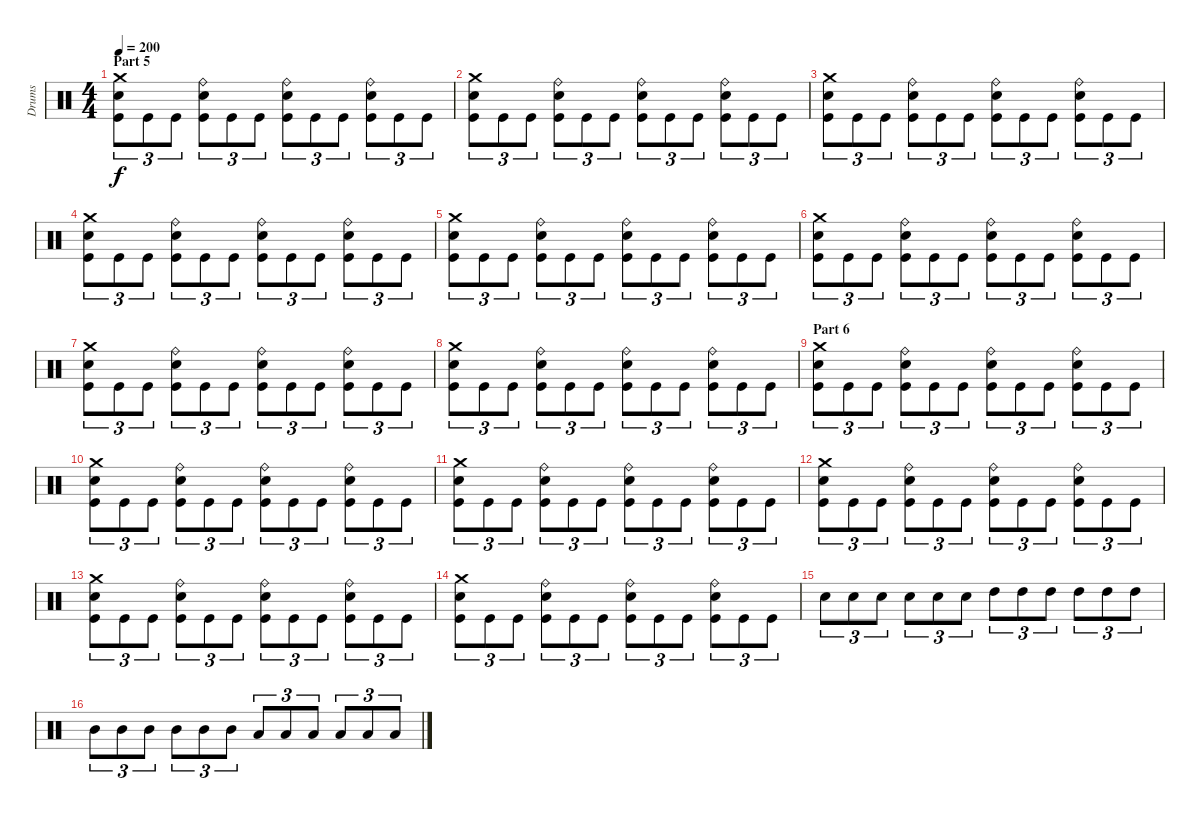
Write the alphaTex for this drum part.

\track ("Drums" "Drums") {instrument percussion}
\staff {score}
\articulation defaults
\ts (4 4)
\section ("" "Part 5")
\tempo 200
\clef neutral
\ks c
("Crash medium (hit)" "Electric Snare (hit)" "Kick (hit)").8{tu (3 2) dy f} "Kick (hit)".8{tu (3 2)} "Kick (hit)".8{tu (3 2)} ("Ride (bell)" "Electric Snare (hit)" "Kick (hit)").8{tu (3 2)} "Kick (hit)".8{tu (3 2)} "Kick (hit)".8{tu (3 2)} ("Ride (bell)" "Electric Snare (hit)" "Kick (hit)").8{tu (3 2)} "Kick (hit)".8{tu (3 2)} "Kick (hit)".8{tu (3 2)} ("Ride (bell)" "Electric Snare (hit)" "Kick (hit)").8{tu (3 2)} "Kick (hit)".8{tu (3 2)} "Kick (hit)".8{tu (3 2)} |
("Crash medium (hit)" "Electric Snare (hit)" "Kick (hit)").8{tu (3 2)} "Kick (hit)".8{tu (3 2)} "Kick (hit)".8{tu (3 2)} ("Ride (bell)" "Electric Snare (hit)" "Kick (hit)").8{tu (3 2)} "Kick (hit)".8{tu (3 2)} "Kick (hit)".8{tu (3 2)} ("Ride (bell)" "Electric Snare (hit)" "Kick (hit)").8{tu (3 2)} "Kick (hit)".8{tu (3 2)} "Kick (hit)".8{tu (3 2)} ("Ride (bell)" "Electric Snare (hit)" "Kick (hit)").8{tu (3 2)} "Kick (hit)".8{tu (3 2)} "Kick (hit)".8{tu (3 2)} |
("Crash medium (hit)" "Electric Snare (hit)" "Kick (hit)").8{tu (3 2)} "Kick (hit)".8{tu (3 2)} "Kick (hit)".8{tu (3 2)} ("Ride (bell)" "Electric Snare (hit)" "Kick (hit)").8{tu (3 2)} "Kick (hit)".8{tu (3 2)} "Kick (hit)".8{tu (3 2)} ("Ride (bell)" "Electric Snare (hit)" "Kick (hit)").8{tu (3 2)} "Kick (hit)".8{tu (3 2)} "Kick (hit)".8{tu (3 2)} ("Ride (bell)" "Electric Snare (hit)" "Kick (hit)").8{tu (3 2)} "Kick (hit)".8{tu (3 2)} "Kick (hit)".8{tu (3 2)} |
("Crash medium (hit)" "Electric Snare (hit)" "Kick (hit)").8{tu (3 2)} "Kick (hit)".8{tu (3 2)} "Kick (hit)".8{tu (3 2)} ("Ride (bell)" "Electric Snare (hit)" "Kick (hit)").8{tu (3 2)} "Kick (hit)".8{tu (3 2)} "Kick (hit)".8{tu (3 2)} ("Ride (bell)" "Electric Snare (hit)" "Kick (hit)").8{tu (3 2)} "Kick (hit)".8{tu (3 2)} "Kick (hit)".8{tu (3 2)} ("Ride (bell)" "Electric Snare (hit)" "Kick (hit)").8{tu (3 2)} "Kick (hit)".8{tu (3 2)} "Kick (hit)".8{tu (3 2)} |
("Crash medium (hit)" "Electric Snare (hit)" "Kick (hit)").8{tu (3 2)} "Kick (hit)".8{tu (3 2)} "Kick (hit)".8{tu (3 2)} ("Ride (bell)" "Electric Snare (hit)" "Kick (hit)").8{tu (3 2)} "Kick (hit)".8{tu (3 2)} "Kick (hit)".8{tu (3 2)} ("Ride (bell)" "Electric Snare (hit)" "Kick (hit)").8{tu (3 2)} "Kick (hit)".8{tu (3 2)} "Kick (hit)".8{tu (3 2)} ("Ride (bell)" "Electric Snare (hit)" "Kick (hit)").8{tu (3 2)} "Kick (hit)".8{tu (3 2)} "Kick (hit)".8{tu (3 2)} |
("Crash medium (hit)" "Electric Snare (hit)" "Kick (hit)").8{tu (3 2)} "Kick (hit)".8{tu (3 2)} "Kick (hit)".8{tu (3 2)} ("Ride (bell)" "Electric Snare (hit)" "Kick (hit)").8{tu (3 2)} "Kick (hit)".8{tu (3 2)} "Kick (hit)".8{tu (3 2)} ("Ride (bell)" "Electric Snare (hit)" "Kick (hit)").8{tu (3 2)} "Kick (hit)".8{tu (3 2)} "Kick (hit)".8{tu (3 2)} ("Ride (bell)" "Electric Snare (hit)" "Kick (hit)").8{tu (3 2)} "Kick (hit)".8{tu (3 2)} "Kick (hit)".8{tu (3 2)} |
("Crash medium (hit)" "Electric Snare (hit)" "Kick (hit)").8{tu (3 2)} "Kick (hit)".8{tu (3 2)} "Kick (hit)".8{tu (3 2)} ("Ride (bell)" "Electric Snare (hit)" "Kick (hit)").8{tu (3 2)} "Kick (hit)".8{tu (3 2)} "Kick (hit)".8{tu (3 2)} ("Ride (bell)" "Electric Snare (hit)" "Kick (hit)").8{tu (3 2)} "Kick (hit)".8{tu (3 2)} "Kick (hit)".8{tu (3 2)} ("Ride (bell)" "Electric Snare (hit)" "Kick (hit)").8{tu (3 2)} "Kick (hit)".8{tu (3 2)} "Kick (hit)".8{tu (3 2)} |
("Crash medium (hit)" "Electric Snare (hit)" "Kick (hit)").8{tu (3 2)} "Kick (hit)".8{tu (3 2)} "Kick (hit)".8{tu (3 2)} ("Ride (bell)" "Electric Snare (hit)" "Kick (hit)").8{tu (3 2)} "Kick (hit)".8{tu (3 2)} "Kick (hit)".8{tu (3 2)} ("Ride (bell)" "Electric Snare (hit)" "Kick (hit)").8{tu (3 2)} "Kick (hit)".8{tu (3 2)} "Kick (hit)".8{tu (3 2)} ("Ride (bell)" "Electric Snare (hit)" "Kick (hit)").8{tu (3 2)} "Kick (hit)".8{tu (3 2)} "Kick (hit)".8{tu (3 2)} |
\section ("" "Part 6")
("Crash medium (hit)" "Electric Snare (hit)" "Kick (hit)").8{tu (3 2)} "Kick (hit)".8{tu (3 2)} "Kick (hit)".8{tu (3 2)} ("Ride (bell)" "Electric Snare (hit)" "Kick (hit)").8{tu (3 2)} "Kick (hit)".8{tu (3 2)} "Kick (hit)".8{tu (3 2)} ("Ride (bell)" "Electric Snare (hit)" "Kick (hit)").8{tu (3 2)} "Kick (hit)".8{tu (3 2)} "Kick (hit)".8{tu (3 2)} ("Ride (bell)" "Electric Snare (hit)" "Kick (hit)").8{tu (3 2)} "Kick (hit)".8{tu (3 2)} "Kick (hit)".8{tu (3 2)} |
("Crash medium (hit)" "Electric Snare (hit)" "Kick (hit)").8{tu (3 2)} "Kick (hit)".8{tu (3 2)} "Kick (hit)".8{tu (3 2)} ("Ride (bell)" "Electric Snare (hit)" "Kick (hit)").8{tu (3 2)} "Kick (hit)".8{tu (3 2)} "Kick (hit)".8{tu (3 2)} ("Ride (bell)" "Electric Snare (hit)" "Kick (hit)").8{tu (3 2)} "Kick (hit)".8{tu (3 2)} "Kick (hit)".8{tu (3 2)} ("Ride (bell)" "Electric Snare (hit)" "Kick (hit)").8{tu (3 2)} "Kick (hit)".8{tu (3 2)} "Kick (hit)".8{tu (3 2)} |
("Crash medium (hit)" "Electric Snare (hit)" "Kick (hit)").8{tu (3 2)} "Kick (hit)".8{tu (3 2)} "Kick (hit)".8{tu (3 2)} ("Ride (bell)" "Electric Snare (hit)" "Kick (hit)").8{tu (3 2)} "Kick (hit)".8{tu (3 2)} "Kick (hit)".8{tu (3 2)} ("Ride (bell)" "Electric Snare (hit)" "Kick (hit)").8{tu (3 2)} "Kick (hit)".8{tu (3 2)} "Kick (hit)".8{tu (3 2)} ("Ride (bell)" "Electric Snare (hit)" "Kick (hit)").8{tu (3 2)} "Kick (hit)".8{tu (3 2)} "Kick (hit)".8{tu (3 2)} |
("Crash medium (hit)" "Electric Snare (hit)" "Kick (hit)").8{tu (3 2)} "Kick (hit)".8{tu (3 2)} "Kick (hit)".8{tu (3 2)} ("Ride (bell)" "Electric Snare (hit)" "Kick (hit)").8{tu (3 2)} "Kick (hit)".8{tu (3 2)} "Kick (hit)".8{tu (3 2)} ("Ride (bell)" "Electric Snare (hit)" "Kick (hit)").8{tu (3 2)} "Kick (hit)".8{tu (3 2)} "Kick (hit)".8{tu (3 2)} ("Ride (bell)" "Electric Snare (hit)" "Kick (hit)").8{tu (3 2)} "Kick (hit)".8{tu (3 2)} "Kick (hit)".8{tu (3 2)} |
("Crash medium (hit)" "Electric Snare (hit)" "Kick (hit)").8{tu (3 2)} "Kick (hit)".8{tu (3 2)} "Kick (hit)".8{tu (3 2)} ("Ride (bell)" "Electric Snare (hit)" "Kick (hit)").8{tu (3 2)} "Kick (hit)".8{tu (3 2)} "Kick (hit)".8{tu (3 2)} ("Ride (bell)" "Electric Snare (hit)" "Kick (hit)").8{tu (3 2)} "Kick (hit)".8{tu (3 2)} "Kick (hit)".8{tu (3 2)} ("Ride (bell)" "Electric Snare (hit)" "Kick (hit)").8{tu (3 2)} "Kick (hit)".8{tu (3 2)} "Kick (hit)".8{tu (3 2)} |
("Crash medium (hit)" "Electric Snare (hit)" "Kick (hit)").8{tu (3 2)} "Kick (hit)".8{tu (3 2)} "Kick (hit)".8{tu (3 2)} ("Ride (bell)" "Electric Snare (hit)" "Kick (hit)").8{tu (3 2)} "Kick (hit)".8{tu (3 2)} "Kick (hit)".8{tu (3 2)} ("Ride (bell)" "Electric Snare (hit)" "Kick (hit)").8{tu (3 2)} "Kick (hit)".8{tu (3 2)} "Kick (hit)".8{tu (3 2)} ("Ride (bell)" "Electric Snare (hit)" "Kick (hit)").8{tu (3 2)} "Kick (hit)".8{tu (3 2)} "Kick (hit)".8{tu (3 2)} |
"Electric Snare (hit)".8{tu (3 2)} "Electric Snare (hit)".8{tu (3 2)} "Electric Snare (hit)".8{tu (3 2)} "Electric Snare (hit)".8{tu (3 2)} "Electric Snare (hit)".8{tu (3 2)} "Electric Snare (hit)".8{tu (3 2)} "High Tom (hit)".8{tu (3 2)} "High Tom (hit)".8{tu (3 2)} "High Tom (hit)".8{tu (3 2)} "High Tom (hit)".8{tu (3 2)} "High Tom (hit)".8{tu (3 2)} "High Tom (hit)".8{tu (3 2)} |
"Mid Tom (hit)".8{tu (3 2)} "Mid Tom (hit)".8{tu (3 2)} "Mid Tom (hit)".8{tu (3 2)} "Mid Tom (hit)".8{tu (3 2)} "Mid Tom (hit)".8{tu (3 2)} "Mid Tom (hit)".8{tu (3 2)} "Low Tom (hit)".8{tu (3 2)} "Low Tom (hit)".8{tu (3 2)} "Low Tom (hit)".8{tu (3 2)} "Low Tom (hit)".8{tu (3 2)} "Low Tom (hit)".8{tu (3 2)} "Low Tom (hit)".8{tu (3 2)}
